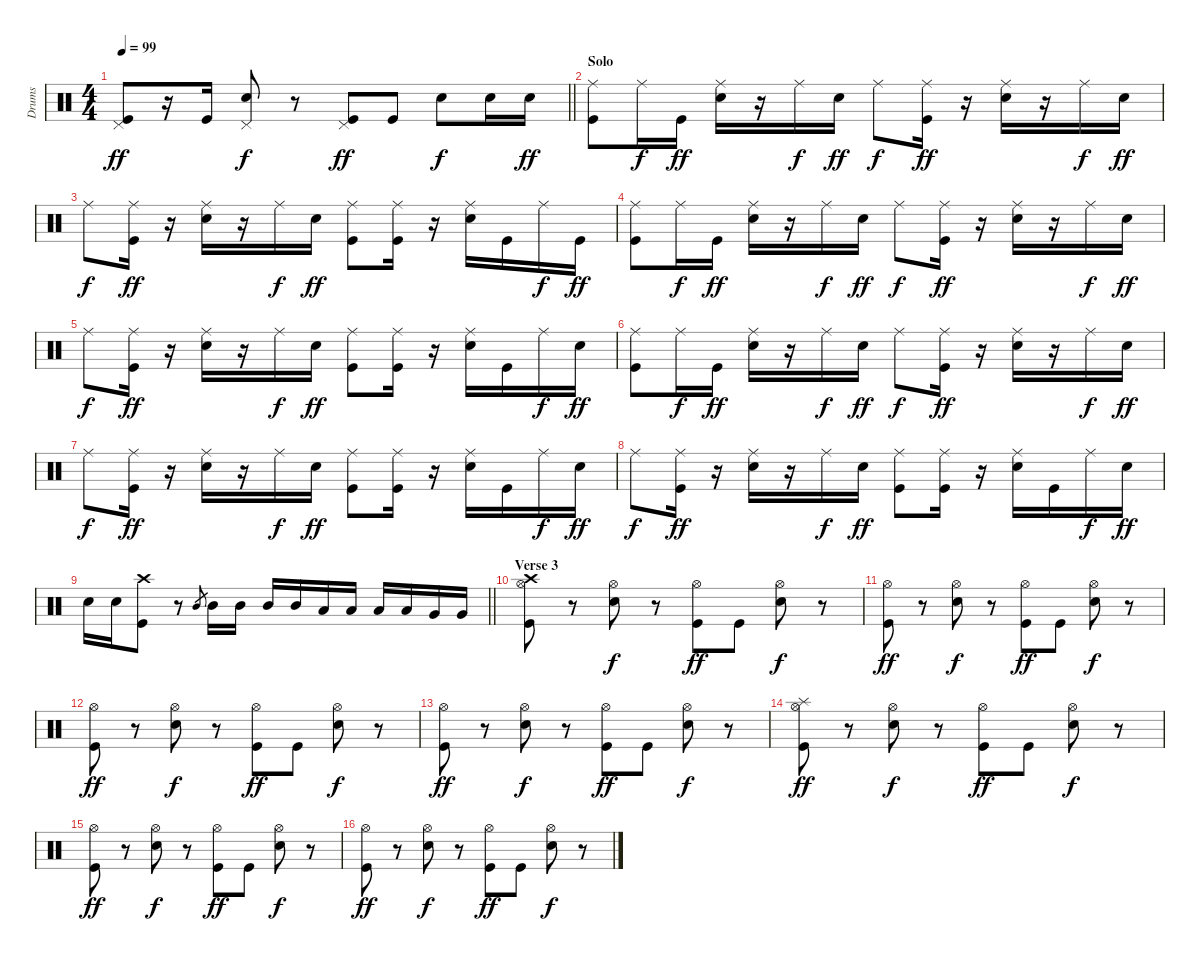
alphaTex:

\track ("Drums" "Drums") {instrument percussion}
\staff {score}
\articulation defaults
\ts (4 4)
\tempo 99
\clef neutral
\barLineRight lightlight
\ks c
("Pedal Hi-Hat (hit)" "Kick (hit)").8{dy ff} r.16 "Kick (hit)".16 ("Pedal Hi-Hat (hit)" "Electric Snare (hit)").8{dy f} r.8 ("Pedal Hi-Hat (hit)" "Kick (hit)").8{dy ff} "Kick (hit)".8 "Electric Snare (hit)".8{dy f} "Electric Snare (hit)".16 "Electric Snare (hit)".16{dy ff} |
\section ("" "Solo")
("Ride (middle)" "Kick (hit)").8 "Ride (middle)".16{dy f} "Kick (hit)".16{dy ff} ("Ride (middle)" "Electric Snare (hit)").16 r.16 "Ride (middle)".16{dy f} "Electric Snare (hit)".16{dy ff} "Ride (middle)".8{dy f} ("Ride (middle)" "Kick (hit)").16{dy ff} r.16 ("Ride (middle)" "Electric Snare (hit)").16 r.16 "Ride (middle)".16{dy f} "Electric Snare (hit)".16{dy ff} |
"Ride (middle)".8{dy f} ("Ride (middle)" "Kick (hit)").16{dy ff} r.16 ("Ride (middle)" "Electric Snare (hit)").16 r.16 "Ride (middle)".16{dy f} "Electric Snare (hit)".16{dy ff} ("Ride (middle)" "Kick (hit)").8 ("Ride (middle)" "Kick (hit)").16 r.16 ("Ride (middle)" "Electric Snare (hit)").16 "Kick (hit)".16 "Ride (middle)".16{dy f} "Kick (hit)".16{dy ff} |
("Ride (middle)" "Kick (hit)").8 "Ride (middle)".16{dy f} "Kick (hit)".16{dy ff} ("Ride (middle)" "Electric Snare (hit)").16 r.16 "Ride (middle)".16{dy f} "Electric Snare (hit)".16{dy ff} "Ride (middle)".8{dy f} ("Ride (middle)" "Kick (hit)").16{dy ff} r.16 ("Ride (middle)" "Electric Snare (hit)").16 r.16 "Ride (middle)".16{dy f} "Electric Snare (hit)".16{dy ff} |
"Ride (middle)".8{dy f} ("Ride (middle)" "Kick (hit)").16{dy ff} r.16 ("Ride (middle)" "Electric Snare (hit)").16 r.16 "Ride (middle)".16{dy f} "Electric Snare (hit)".16{dy ff} ("Ride (middle)" "Kick (hit)").8 ("Ride (middle)" "Kick (hit)").16 r.16 ("Ride (middle)" "Electric Snare (hit)").16 "Kick (hit)".16 "Ride (middle)".16{dy f} "Electric Snare (hit)".16{dy ff} |
("Ride (middle)" "Kick (hit)").8 "Ride (middle)".16{dy f} "Kick (hit)".16{dy ff} ("Ride (middle)" "Electric Snare (hit)").16 r.16 "Ride (middle)".16{dy f} "Electric Snare (hit)".16{dy ff} "Ride (middle)".8{dy f} ("Ride (middle)" "Kick (hit)").16{dy ff} r.16 ("Ride (middle)" "Electric Snare (hit)").16 r.16 "Ride (middle)".16{dy f} "Electric Snare (hit)".16{dy ff} |
"Ride (middle)".8{dy f} ("Ride (middle)" "Kick (hit)").16{dy ff} r.16 ("Ride (middle)" "Electric Snare (hit)").16 r.16 "Ride (middle)".16{dy f} "Electric Snare (hit)".16{dy ff} ("Ride (middle)" "Kick (hit)").8 ("Ride (middle)" "Kick (hit)").16 r.16 ("Ride (middle)" "Electric Snare (hit)").16 "Kick (hit)".16 "Ride (middle)".16{dy f} "Electric Snare (hit)".16{dy ff} |
"Ride (middle)".8{dy f} ("Ride (middle)" "Kick (hit)").16{dy ff} r.16 ("Ride (middle)" "Electric Snare (hit)").16 r.16 "Ride (middle)".16{dy f} "Electric Snare (hit)".16{dy ff} ("Ride (middle)" "Kick (hit)").8 ("Ride (middle)" "Kick (hit)").16 r.16 ("Ride (middle)" "Electric Snare (hit)").16 "Kick (hit)".16 "Ride (middle)".16{dy f} "Electric Snare (hit)".16{dy ff} |
\barLineRight lightlight "Electric Snare (hit)".16 "Electric Snare (hit)".16
("Crash high (hit)" "Kick (hit)").8 r.8 "Mid Tom (hit)".8{gr} "Mid Tom (hit)".16 "Mid Tom (hit)".16 "Mid Tom (hit)".16 "Mid Tom (hit)".16 "Low Tom (hit)".16 "Low Tom (hit)".16 "Low Tom (hit)".16 "Low Tom (hit)".16 "Very Low Tom (hit)".16 "Very Low Tom (hit)".16 |
\section ("" "Verse 3")
("Crash high (hit)" "Hi-Hat (open)" "Kick (hit)").8 r.8 ("Hi-Hat (open)" "Electric Snare (hit)").8{dy f} r.8 ("Hi-Hat (open)" "Kick (hit)").8{dy ff} "Kick (hit)".8 ("Hi-Hat (open)" "Electric Snare (hit)").8{dy f} r.8 |
("Hi-Hat (open)" "Kick (hit)").8{dy ff} r.8 ("Hi-Hat (open)" "Electric Snare (hit)").8{dy f} r.8 ("Hi-Hat (open)" "Kick (hit)").8{dy ff} "Kick (hit)".8 ("Hi-Hat (open)" "Electric Snare (hit)").8{dy f} r.8 |
("Hi-Hat (open)" "Kick (hit)").8{dy ff} r.8 ("Hi-Hat (open)" "Electric Snare (hit)").8{dy f} r.8 ("Hi-Hat (open)" "Kick (hit)").8{dy ff} "Kick (hit)".8 ("Hi-Hat (open)" "Electric Snare (hit)").8{dy f} r.8 |
("Hi-Hat (open)" "Kick (hit)").8{dy ff} r.8 ("Hi-Hat (open)" "Electric Snare (hit)").8{dy f} r.8 ("Hi-Hat (open)" "Kick (hit)").8{dy ff} "Kick (hit)".8 ("Hi-Hat (open)" "Electric Snare (hit)").8{dy f} r.8 |
("Splash (hit)" "Hi-Hat (open)" "Kick (hit)").8{dy ff} r.8 ("Hi-Hat (open)" "Electric Snare (hit)").8{dy f} r.8 ("Hi-Hat (open)" "Kick (hit)").8{dy ff} "Kick (hit)".8 ("Hi-Hat (open)" "Electric Snare (hit)").8{dy f} r.8 |
("Hi-Hat (open)" "Kick (hit)").8{dy ff} r.8 ("Hi-Hat (open)" "Electric Snare (hit)").8{dy f} r.8 ("Hi-Hat (open)" "Kick (hit)").8{dy ff} "Kick (hit)".8 ("Hi-Hat (open)" "Electric Snare (hit)").8{dy f} r.8 |
("Hi-Hat (open)" "Kick (hit)").8{dy ff} r.8 ("Hi-Hat (open)" "Electric Snare (hit)").8{dy f} r.8 ("Hi-Hat (open)" "Kick (hit)").8{dy ff} "Kick (hit)".8 ("Hi-Hat (open)" "Electric Snare (hit)").8{dy f} r.8
